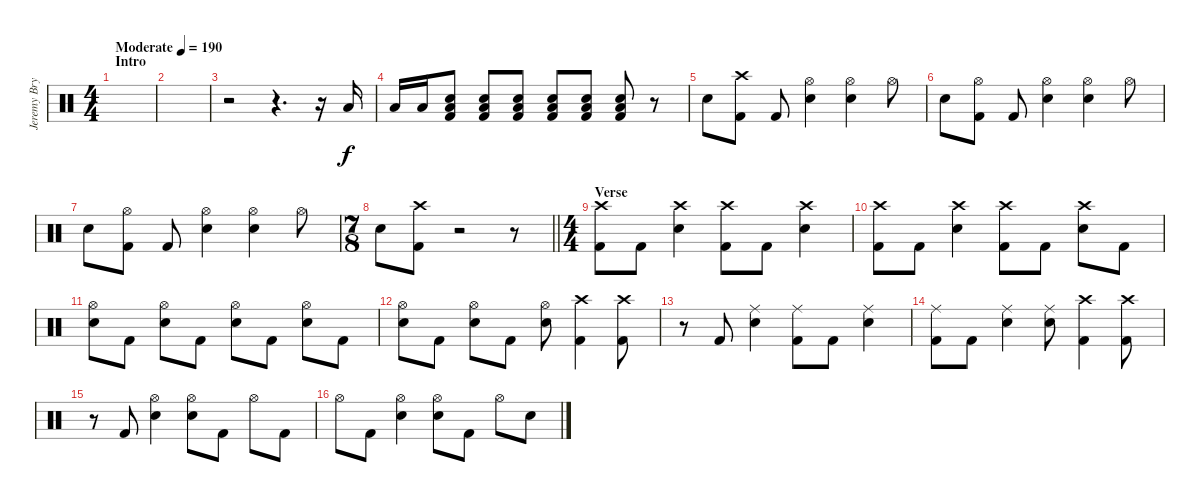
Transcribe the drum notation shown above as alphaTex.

\track ("Jeremy Bryan - Drums" "Jeremy Bry") {instrument percussion}
\staff {score}
\articulation defaults
\ts (4 4)
\section ("" "Intro")
\tempo (190 "Moderate")
\clef neutral
\ks c
|
|
r.2 r.4{d} r.16 "Low Tom (hit)".16 |
"Low Tom (hit)".16 "Low Tom (hit)".16 ("Low Floor Tom (hit)" "Electric Snare (hit)" "Kick (hit) 2").8 ("Low Floor Tom (hit)" "Electric Snare (hit)" "Kick (hit) 2").8 ("Low Floor Tom (hit)" "Electric Snare (hit)" "Kick (hit) 2").8 ("Low Floor Tom (hit)" "Electric Snare (hit)" "Kick (hit) 2").8 ("Low Floor Tom (hit)" "Electric Snare (hit)" "Kick (hit) 2").8 ("Low Floor Tom (hit)" "Electric Snare (hit)" "Kick (hit) 2").8 r.8 |
"Electric Snare (hit)".8 ("Crash high (hit)" "Kick (hit) 2").8 "Kick (hit) 2".8 ("Hi-Hat (open)" "Electric Snare (hit)").4 ("Hi-Hat (open)" "Electric Snare (hit)").4 "Hi-Hat (open)".8 |
"Electric Snare (hit)".8 ("Hi-Hat (open)" "Kick (hit) 2").8 "Kick (hit) 2".8 ("Hi-Hat (open)" "Electric Snare (hit)").4 ("Hi-Hat (open)" "Electric Snare (hit)").4 "Hi-Hat (open)".8 |
"Electric Snare (hit)".8 ("Hi-Hat (open)" "Kick (hit) 2").8 "Kick (hit) 2".8 ("Hi-Hat (open)" "Electric Snare (hit)").4 ("Hi-Hat (open)" "Electric Snare (hit)").4 "Hi-Hat (open)".8 |
\ts (7 8)
\barLineRight lightlight "Electric Snare (hit)".8
("Crash high (hit)" "Kick (hit) 2").8 r.2 r.8 |
\ts (4 4)
\section ("" "Verse")
("Crash high (hit)" "Kick (hit) 2").8 "Kick (hit) 2".8 ("Crash high (hit)" "Electric Snare (hit)").4 ("Crash high (hit)" "Kick (hit) 2").8 "Kick (hit) 2".8 ("Crash high (hit)" "Electric Snare (hit)").4 |
("Crash high (hit)" "Kick (hit) 2").8 "Kick (hit) 2".8 ("Crash high (hit)" "Electric Snare (hit)").4 ("Crash high (hit)" "Kick (hit) 2").8 "Kick (hit) 2".8 ("Crash high (hit)" "Electric Snare (hit)").8 "Kick (hit) 2".8 |
("Hi-Hat (open)" "Electric Snare (hit)").8 "Kick (hit) 2".8 ("Hi-Hat (open)" "Electric Snare (hit)").8 "Kick (hit) 2".8 ("Hi-Hat (open)" "Electric Snare (hit)").8 "Kick (hit) 2".8 ("Hi-Hat (open)" "Electric Snare (hit)").8 "Kick (hit) 2".8 |
("Hi-Hat (open)" "Electric Snare (hit)").8 "Kick (hit) 2".8 ("Hi-Hat (open)" "Electric Snare (hit)").8 "Kick (hit) 2".8 ("Hi-Hat (open)" "Electric Snare (hit)").8 ("Crash high (hit)" "Kick (hit) 2").4 ("Crash high (hit)" "Kick (hit) 2").8 |
r.8 "Kick (hit) 2".8 ("Ride (middle)" "Electric Snare (hit)").4 ("Ride (middle)" "Kick (hit) 2").8 "Kick (hit) 2".8 ("Ride (middle)" "Electric Snare (hit)").4 |
("Ride (middle)" "Kick (hit) 2").8 "Kick (hit) 2".8 ("Ride (middle)" "Electric Snare (hit)").4 ("Ride (middle)" "Electric Snare (hit)").8 ("Crash high (hit)" "Kick (hit) 2").4 ("Crash high (hit)" "Kick (hit) 2").8 |
r.8 "Kick (hit) 2".8 ("Hi-Hat (open)" "Electric Snare (hit)").4 ("Hi-Hat (open)" "Electric Snare (hit)").8 "Kick (hit) 2".8 "Hi-Hat (open)".8 "Kick (hit) 2".8 |
"Hi-Hat (open)".8 "Kick (hit) 2".8 ("Hi-Hat (open)" "Electric Snare (hit)").4 ("Hi-Hat (open)" "Electric Snare (hit)").8 "Kick (hit) 2".8 "Hi-Hat (open)".8 "Electric Snare (hit)".8
